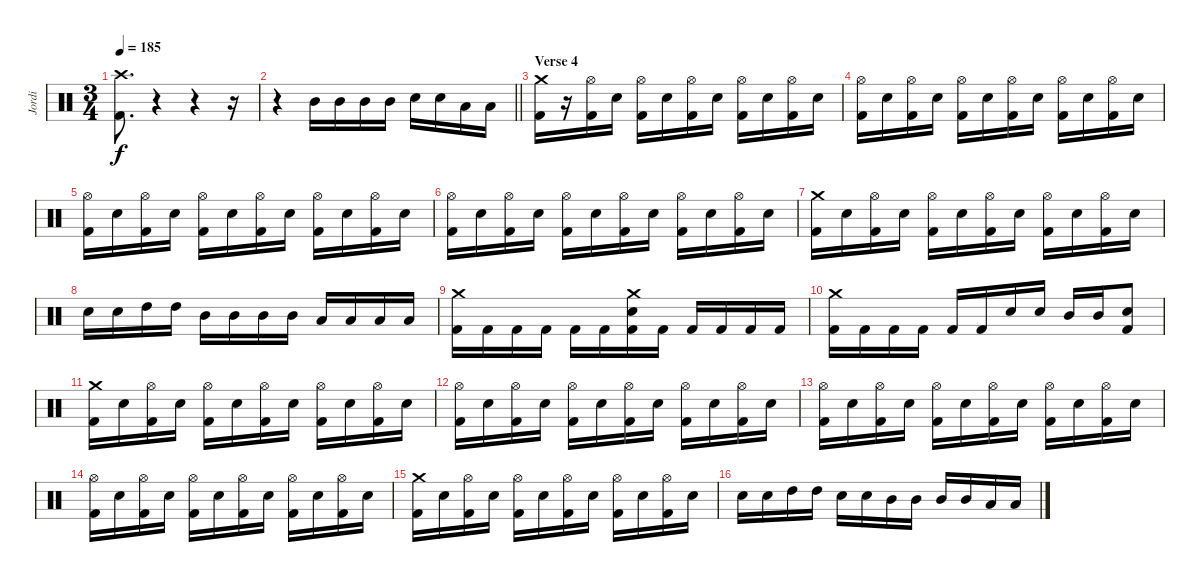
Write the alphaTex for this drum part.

\track ("Jordi" "Jordi") {instrument percussion}
\staff {score}
\articulation defaults
\ts (3 4)
\tempo 185
\clef neutral
\ks c
("Crash high (hit)" "Kick (hit) 2").8{d dy f} r.4 r.4 r.16 |
\barLineRight lightlight
r.4 "Mid Tom (hit)".16 "Mid Tom (hit)".16 "Mid Tom (hit)".16 "Mid Tom (hit)".16 "Snare (hit) 2".16 "Snare (hit) 2".16 "Low Tom (hit)".16 "Low Tom (hit)".16 |
\section ("" "Verse 4")
("Crash medium (hit)" "Kick (hit) 2").16 r.16 ("Hi-Hat (open)" "Kick (hit) 2").16 "Snare (hit) 2".16 ("Hi-Hat (open)" "Kick (hit) 2").16 "Snare (hit) 2".16 ("Hi-Hat (open)" "Kick (hit) 2").16 "Snare (hit) 2".16 ("Hi-Hat (open)" "Kick (hit) 2").16 "Snare (hit) 2".16 ("Hi-Hat (open)" "Kick (hit) 2").16 "Snare (hit) 2".16 |
("Hi-Hat (open)" "Kick (hit) 2").16 "Snare (hit) 2".16 ("Hi-Hat (open)" "Kick (hit) 2").16 "Snare (hit) 2".16 ("Hi-Hat (open)" "Kick (hit) 2").16 "Snare (hit) 2".16 ("Hi-Hat (open)" "Kick (hit) 2").16 "Snare (hit) 2".16 ("Hi-Hat (open)" "Kick (hit) 2").16 "Snare (hit) 2".16 ("Hi-Hat (open)" "Kick (hit) 2").16 "Snare (hit) 2".16 |
("Hi-Hat (open)" "Kick (hit) 2").16 "Snare (hit) 2".16 ("Hi-Hat (open)" "Kick (hit) 2").16 "Snare (hit) 2".16 ("Hi-Hat (open)" "Kick (hit) 2").16 "Snare (hit) 2".16 ("Hi-Hat (open)" "Kick (hit) 2").16 "Snare (hit) 2".16 ("Hi-Hat (open)" "Kick (hit) 2").16 "Snare (hit) 2".16 ("Hi-Hat (open)" "Kick (hit) 2").16 "Snare (hit) 2".16 |
("Hi-Hat (open)" "Kick (hit) 2").16 "Snare (hit) 2".16 ("Hi-Hat (open)" "Kick (hit) 2").16 "Snare (hit) 2".16 ("Hi-Hat (open)" "Kick (hit) 2").16 "Snare (hit) 2".16 ("Hi-Hat (open)" "Kick (hit) 2").16 "Snare (hit) 2".16 ("Hi-Hat (open)" "Kick (hit) 2").16 "Snare (hit) 2".16 ("Hi-Hat (open)" "Kick (hit) 2").16 "Snare (hit) 2".16 |
("Crash medium (hit)" "Kick (hit) 2").16 "Snare (hit) 2".16 ("Hi-Hat (open)" "Kick (hit) 2").16 "Snare (hit) 2".16 ("Hi-Hat (open)" "Kick (hit) 2").16 "Snare (hit) 2".16 ("Hi-Hat (open)" "Kick (hit) 2").16 "Snare (hit) 2".16 ("Hi-Hat (open)" "Kick (hit) 2").16 "Snare (hit) 2".16 ("Hi-Hat (open)" "Kick (hit) 2").16 "Snare (hit) 2".16 |
"Snare (hit) 2".16 "Snare (hit) 2".16 "High Tom (hit)".16 "High Tom (hit)".16 "Mid Tom (hit)".16 "Mid Tom (hit)".16 "Mid Tom (hit)".16 "Mid Tom (hit)".16 "Low Tom (hit)".16 "Low Tom (hit)".16 "Low Tom (hit)".16 "Low Tom (hit)".16 |
("Crash medium (hit)" "Kick (hit) 2").16 "Kick (hit) 2".16 "Kick (hit) 2".16 "Kick (hit) 2".16 "Kick (hit) 2".16 "Kick (hit) 2".16 ("Crash medium (hit)" "Snare (hit) 2" "Kick (hit) 2").16 "Kick (hit) 2".16 "Kick (hit) 2".16 "Kick (hit) 2".16 "Kick (hit) 2".16 "Kick (hit) 2".16 |
("Crash medium (hit)" "Kick (hit) 2").16 "Kick (hit) 2".16 "Kick (hit) 2".16 "Kick (hit) 2".16 "Kick (hit) 2".16 "Kick (hit) 2".16 "Snare (hit) 2".16 "Snare (hit) 2".16 "Mid Tom (hit)".16 "Mid Tom (hit)".16 ("Snare (hit) 2" "Kick (hit) 2").8 |
("Crash medium (hit)" "Kick (hit) 2").16 "Snare (hit) 2".16 ("Hi-Hat (open)" "Kick (hit) 2").16 "Snare (hit) 2".16 ("Hi-Hat (open)" "Kick (hit) 2").16 "Snare (hit) 2".16 ("Hi-Hat (open)" "Kick (hit) 2").16 "Snare (hit) 2".16 ("Hi-Hat (open)" "Kick (hit) 2").16 "Snare (hit) 2".16 ("Hi-Hat (open)" "Kick (hit) 2").16 "Snare (hit) 2".16 |
("Hi-Hat (open)" "Kick (hit) 2").16 "Snare (hit) 2".16 ("Hi-Hat (open)" "Kick (hit) 2").16 "Snare (hit) 2".16 ("Hi-Hat (open)" "Kick (hit) 2").16 "Snare (hit) 2".16 ("Hi-Hat (open)" "Kick (hit) 2").16 "Snare (hit) 2".16 ("Hi-Hat (open)" "Kick (hit) 2").16 "Snare (hit) 2".16 ("Hi-Hat (open)" "Kick (hit) 2").16 "Snare (hit) 2".16 |
("Hi-Hat (open)" "Kick (hit) 2").16 "Snare (hit) 2".16 ("Hi-Hat (open)" "Kick (hit) 2").16 "Snare (hit) 2".16 ("Hi-Hat (open)" "Kick (hit) 2").16 "Snare (hit) 2".16 ("Hi-Hat (open)" "Kick (hit) 2").16 "Snare (hit) 2".16 ("Hi-Hat (open)" "Kick (hit) 2").16 "Snare (hit) 2".16 ("Hi-Hat (open)" "Kick (hit) 2").16 "Snare (hit) 2".16 |
("Hi-Hat (open)" "Kick (hit) 2").16 "Snare (hit) 2".16 ("Hi-Hat (open)" "Kick (hit) 2").16 "Snare (hit) 2".16 ("Hi-Hat (open)" "Kick (hit) 2").16 "Snare (hit) 2".16 ("Hi-Hat (open)" "Kick (hit) 2").16 "Snare (hit) 2".16 ("Hi-Hat (open)" "Kick (hit) 2").16 "Snare (hit) 2".16 ("Hi-Hat (open)" "Kick (hit) 2").16 "Snare (hit) 2".16 |
("Crash medium (hit)" "Kick (hit) 2").16 "Snare (hit) 2".16 ("Hi-Hat (open)" "Kick (hit) 2").16 "Snare (hit) 2".16 ("Hi-Hat (open)" "Kick (hit) 2").16 "Snare (hit) 2".16 ("Hi-Hat (open)" "Kick (hit) 2").16 "Snare (hit) 2".16 ("Hi-Hat (open)" "Kick (hit) 2").16 "Snare (hit) 2".16 ("Hi-Hat (open)" "Kick (hit) 2").16 "Snare (hit) 2".16 |
"Snare (hit) 2".16 "Snare (hit) 2".16 "High Tom (hit)".16 "High Tom (hit)".16 "Snare (hit) 2".16 "Snare (hit) 2".16 "Mid Tom (hit)".16 "Mid Tom (hit)".16 "Mid Tom (hit)".16 "Mid Tom (hit)".16 "Low Tom (hit)".16 "Low Tom (hit)".16
